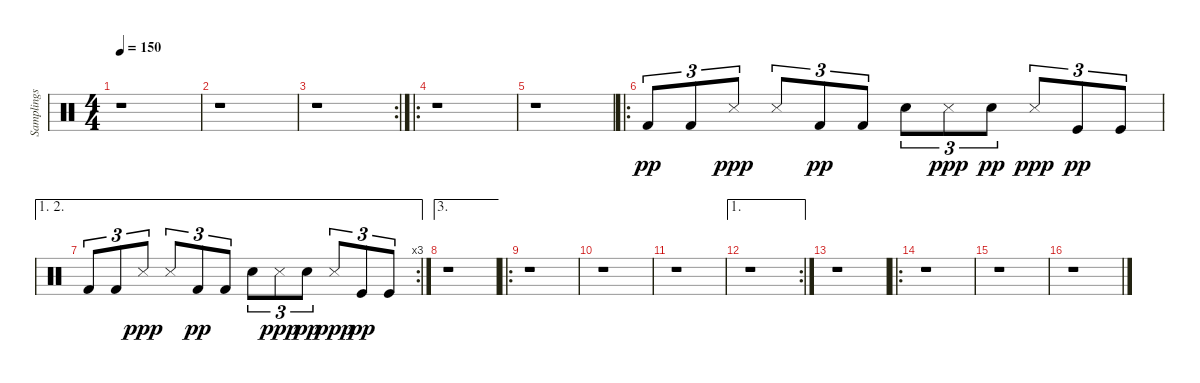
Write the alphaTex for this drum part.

\track ("Samplings" "Samplings") {instrument percussion}
\staff {score}
\articulation defaults
\ts (4 4)
\tempo 150
\clef neutral
\ks c
r.1{dy pp} |
r.1 |
\rc 2
r.1 |
\ro
r.1 |
r.1 |
\ro "Kick (hit) 2".8{tu (3 2)} "Kick (hit) 2".8{tu (3 2)} "Metronome (hit)".8{tu (3 2) dy ppp} "Metronome (hit)".8{tu (3 2)} "Kick (hit) 2".8{tu (3 2) dy pp} "Kick (hit) 2".8{tu (3 2)} "Snare (hit) 2".8{tu (3 2)} "Metronome (hit)".8{tu (3 2) dy ppp} "Electric Snare (hit)".8{tu (3 2) dy pp} "Metronome (hit)".8{tu (3 2) dy ppp} "Kick (hit)".8{tu (3 2) dy pp} "Kick (hit)".8{tu (3 2)}
|
\ae (1 2)
\rc 3 "Kick (hit) 2".8{tu (3 2)} "Kick (hit) 2".8{tu (3 2)} "Metronome (hit)".8{tu (3 2) dy ppp} "Metronome (hit)".8{tu (3 2)} "Kick (hit) 2".8{tu (3 2) dy pp} "Kick (hit) 2".8{tu (3 2)} "Snare (hit) 2".8{tu (3 2)} "Metronome (hit)".8{tu (3 2) dy ppp} "Electric Snare (hit)".8{tu (3 2) dy pp} "Metronome (hit)".8{tu (3 2) dy ppp} "Kick (hit)".8{tu (3 2) dy pp} "Kick (hit)".8{tu (3 2)}
|
\ae 3
r.1 |
\ro
r.1 |
r.1 |
r.1 |
\ae 1
\rc 2
r.1 |
r.1 |
\ro
r.1 |
r.1 |
r.1
